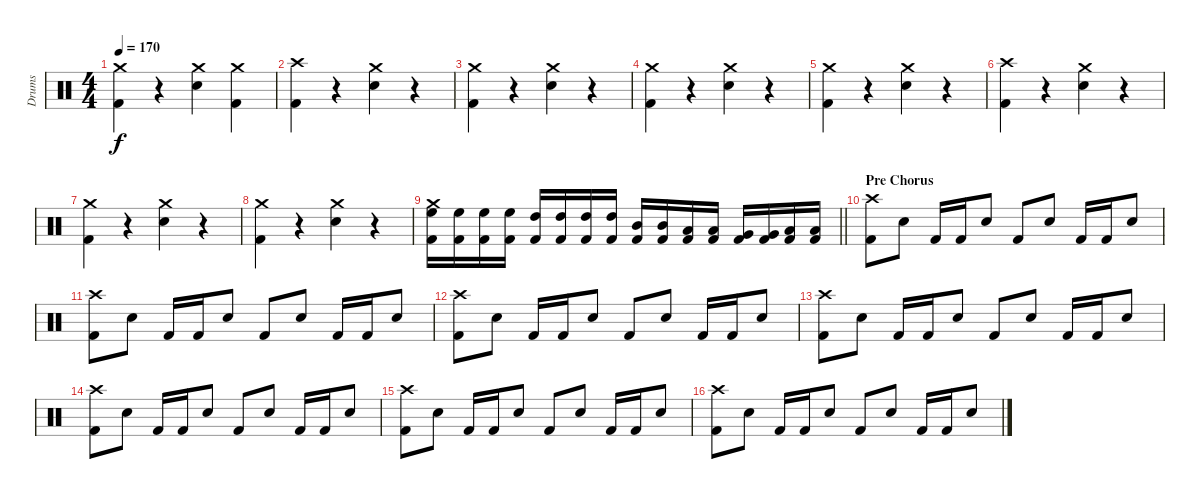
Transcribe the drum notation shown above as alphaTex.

\track ("Drums" "Drums") {instrument percussion}
\staff {score}
\articulation defaults
\ts (4 4)
\tempo 170
\clef neutral
\ks c
("Crash medium (hit)" "Kick (hit) 2").4{dy f} r.4 ("Crash medium (hit)" "Snare (hit) 2").4 ("Crash medium (hit)" "Kick (hit) 2").4 |
("Crash high (hit)" "Kick (hit) 2").4 r.4 ("Crash medium (hit)" "Snare (hit) 2").4 r.4 |
("Crash medium (hit)" "Kick (hit) 2").4 r.4 ("Crash medium (hit)" "Snare (hit) 2").4 r.4 |
("Crash medium (hit)" "Kick (hit) 2").4 r.4 ("Crash medium (hit)" "Snare (hit) 2").4 r.4 |
("Crash medium (hit)" "Kick (hit) 2").4 r.4 ("Crash medium (hit)" "Snare (hit) 2").4 r.4 |
("Crash high (hit)" "Kick (hit) 2").4 r.4 ("Crash medium (hit)" "Snare (hit) 2").4 r.4 |
("Crash medium (hit)" "Kick (hit) 2").4 r.4 ("Crash medium (hit)" "Snare (hit) 2").4 r.4 |
("Crash medium (hit)" "Kick (hit) 2").4 r.4 ("Crash medium (hit)" "Snare (hit) 2").4 r.4 |
\barLineRight lightlight
("Crash medium (hit)" "High Floor Tom (hit)" "Kick (hit) 2").16 ("High Floor Tom (hit)" "Kick (hit) 2").16 ("High Floor Tom (hit)" "Kick (hit) 2").16 ("High Floor Tom (hit)" "Kick (hit) 2").16 ("High Tom (hit)" "Kick (hit) 2").16 ("High Tom (hit)" "Kick (hit) 2").16 ("High Tom (hit)" "Kick (hit) 2").16 ("High Tom (hit)" "Kick (hit) 2").16 ("Mid Tom (hit)" "Kick (hit) 2").16 ("Mid Tom (hit)" "Kick (hit) 2").16 ("Low Tom (hit)" "Kick (hit) 2").16 ("Low Tom (hit)" "Kick (hit) 2").16 ("Very Low Tom (hit)" "Kick (hit) 2").16 ("Very Low Tom (hit)" "Kick (hit) 2").16 ("Low Floor Tom (hit)" "Kick (hit) 2").16 ("Low Floor Tom (hit)" "Kick (hit) 2").16 |
\section ("" "Pre Chorus")
("Crash high (hit)" "Kick (hit) 2").8 "Snare (hit) 2".8 "Kick (hit) 2".16 "Kick (hit) 2".16 "Snare (hit) 2".8 "Kick (hit) 2".8 "Snare (hit) 2".8 "Kick (hit) 2".16 "Kick (hit) 2".16 "Snare (hit) 2".8 |
("Crash high (hit)" "Kick (hit) 2").8 "Snare (hit) 2".8 "Kick (hit) 2".16 "Kick (hit) 2".16 "Snare (hit) 2".8 "Kick (hit) 2".8 "Snare (hit) 2".8 "Kick (hit) 2".16 "Kick (hit) 2".16 "Snare (hit) 2".8 |
("Crash high (hit)" "Kick (hit) 2").8 "Snare (hit) 2".8 "Kick (hit) 2".16 "Kick (hit) 2".16 "Snare (hit) 2".8 "Kick (hit) 2".8 "Snare (hit) 2".8 "Kick (hit) 2".16 "Kick (hit) 2".16 "Snare (hit) 2".8 |
("Crash high (hit)" "Kick (hit) 2").8 "Snare (hit) 2".8 "Kick (hit) 2".16 "Kick (hit) 2".16 "Snare (hit) 2".8 "Kick (hit) 2".8 "Snare (hit) 2".8 "Kick (hit) 2".16 "Kick (hit) 2".16 "Snare (hit) 2".8 |
("Crash high (hit)" "Kick (hit) 2").8 "Snare (hit) 2".8 "Kick (hit) 2".16 "Kick (hit) 2".16 "Snare (hit) 2".8 "Kick (hit) 2".8 "Snare (hit) 2".8 "Kick (hit) 2".16 "Kick (hit) 2".16 "Snare (hit) 2".8 |
("Crash high (hit)" "Kick (hit) 2").8 "Snare (hit) 2".8 "Kick (hit) 2".16 "Kick (hit) 2".16 "Snare (hit) 2".8 "Kick (hit) 2".8 "Snare (hit) 2".8 "Kick (hit) 2".16 "Kick (hit) 2".16 "Snare (hit) 2".8 |
("Crash high (hit)" "Kick (hit) 2").8 "Snare (hit) 2".8 "Kick (hit) 2".16 "Kick (hit) 2".16 "Snare (hit) 2".8 "Kick (hit) 2".8 "Snare (hit) 2".8 "Kick (hit) 2".16 "Kick (hit) 2".16 "Snare (hit) 2".8
